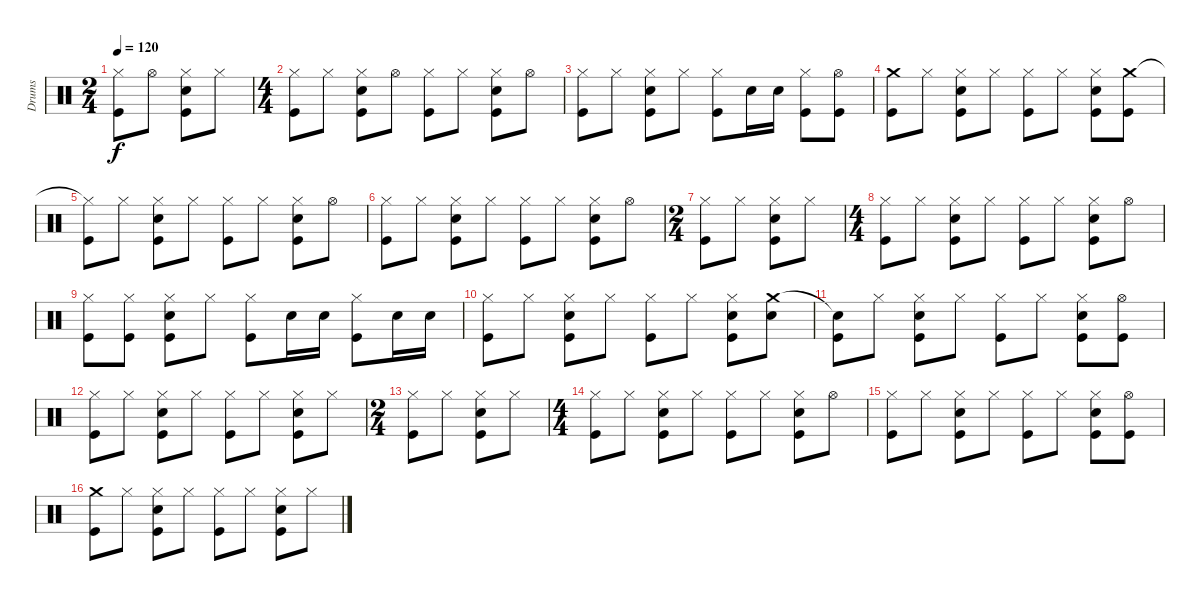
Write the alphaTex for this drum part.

\track ("Drums" "Drums") {instrument percussion}
\staff {score}
\articulation defaults
\ts (2 4)
\tempo 120
\clef neutral
\ks c
("Hi-Hat (closed)" "Kick (hit)").8{dy f} "Hi-Hat (open)".8 ("Hi-Hat (closed)" "Snare (hit) 2" "Kick (hit)").8 "Hi-Hat (closed)".8 |
\ts (4 4)
("Hi-Hat (closed)" "Kick (hit)").8 "Hi-Hat (closed)".8 ("Hi-Hat (closed)" "Snare (hit) 2" "Kick (hit)").8 "Hi-Hat (open)".8 ("Hi-Hat (closed)" "Kick (hit)").8 "Hi-Hat (closed)".8 ("Hi-Hat (closed)" "Snare (hit) 2" "Kick (hit)").8 "Hi-Hat (open)".8 |
("Hi-Hat (closed)" "Kick (hit)").8 "Hi-Hat (closed)".8 ("Hi-Hat (closed)" "Snare (hit) 2" "Kick (hit)").8 "Hi-Hat (closed)".8 ("Hi-Hat (closed)" "Kick (hit)").8 "Snare (hit) 2".16 "Snare (hit) 2".16 ("Hi-Hat (closed)" "Kick (hit)").8 ("Hi-Hat (open)" "Kick (hit)").8 |
("Crash medium (hit)" "Kick (hit)").8 "Hi-Hat (closed)".8 ("Hi-Hat (closed)" "Snare (hit) 2" "Kick (hit)").8 "Hi-Hat (closed)".8 ("Hi-Hat (closed)" "Kick (hit)").8 "Hi-Hat (closed)".8 ("Hi-Hat (closed)" "Snare (hit) 2" "Kick (hit)").8 ("Crash medium (hit)" "Kick (hit)").8 |
("Hi-Hat (closed)"{t} "Kick (hit)").8 "Hi-Hat (closed)".8 ("Hi-Hat (closed)" "Snare (hit) 2" "Kick (hit)").8 "Hi-Hat (closed)".8 ("Hi-Hat (closed)" "Kick (hit)").8 "Hi-Hat (closed)".8 ("Hi-Hat (closed)" "Snare (hit) 2" "Kick (hit)").8 "Hi-Hat (open)".8 |
("Hi-Hat (closed)" "Kick (hit)").8 "Hi-Hat (closed)".8 ("Hi-Hat (closed)" "Snare (hit) 2" "Kick (hit)").8 "Hi-Hat (closed)".8 ("Hi-Hat (closed)" "Kick (hit)").8 "Hi-Hat (closed)".8 ("Hi-Hat (closed)" "Snare (hit) 2" "Kick (hit)").8 "Hi-Hat (open)".8 |
\ts (2 4)
("Hi-Hat (closed)" "Kick (hit)").8 "Hi-Hat (closed)".8 ("Hi-Hat (closed)" "Snare (hit) 2" "Kick (hit)").8 "Hi-Hat (closed)".8 |
\ts (4 4)
("Hi-Hat (closed)" "Kick (hit)").8 "Hi-Hat (closed)".8 ("Hi-Hat (closed)" "Snare (hit) 2" "Kick (hit)").8 "Hi-Hat (closed)".8 ("Hi-Hat (closed)" "Kick (hit)").8 "Hi-Hat (closed)".8 ("Hi-Hat (closed)" "Snare (hit) 2" "Kick (hit)").8 "Hi-Hat (open)".8 |
("Hi-Hat (closed)" "Kick (hit)").8 ("Hi-Hat (closed)" "Kick (hit)").8 ("Hi-Hat (closed)" "Snare (hit) 2" "Kick (hit)").8 "Hi-Hat (closed)".8 ("Hi-Hat (closed)" "Kick (hit)").8 "Snare (hit) 2".16 "Snare (hit) 2".16 ("Hi-Hat (closed)" "Kick (hit)").8 "Snare (hit) 2".16 "Snare (hit) 2".16 |
("Hi-Hat (closed)" "Kick (hit)").8 "Hi-Hat (closed)".8 ("Hi-Hat (closed)" "Snare (hit) 2" "Kick (hit)").8 "Hi-Hat (closed)".8 ("Hi-Hat (closed)" "Kick (hit)").8 "Hi-Hat (closed)".8 ("Hi-Hat (closed)" "Snare (hit) 2" "Kick (hit)").8 ("Crash medium (hit)" "Snare (hit) 2").8 |
("Snare (hit)"{t} "Kick (hit)").8 "Hi-Hat (closed)".8 ("Hi-Hat (closed)" "Snare (hit) 2" "Kick (hit)").8 "Hi-Hat (closed)".8 ("Hi-Hat (closed)" "Kick (hit)").8 "Hi-Hat (closed)".8 ("Hi-Hat (closed)" "Snare (hit) 2" "Kick (hit)").8 ("Hi-Hat (open)" "Kick (hit)").8 |
("Hi-Hat (closed)" "Kick (hit)").8 "Hi-Hat (closed)".8 ("Hi-Hat (closed)" "Snare (hit) 2" "Kick (hit)").8 "Hi-Hat (closed)".8 ("Hi-Hat (closed)" "Kick (hit)").8 "Hi-Hat (closed)".8 ("Hi-Hat (closed)" "Snare (hit) 2" "Kick (hit)").8 "Hi-Hat (closed)".8 |
\ts (2 4)
("Hi-Hat (closed)" "Kick (hit)").8 "Hi-Hat (closed)".8 ("Hi-Hat (closed)" "Snare (hit) 2" "Kick (hit)").8 "Hi-Hat (closed)".8 |
\ts (4 4)
("Hi-Hat (closed)" "Kick (hit)").8 "Hi-Hat (closed)".8 ("Hi-Hat (closed)" "Snare (hit) 2" "Kick (hit)").8 "Hi-Hat (closed)".8 ("Hi-Hat (closed)" "Kick (hit)").8 "Hi-Hat (closed)".8 ("Hi-Hat (closed)" "Snare (hit) 2" "Kick (hit)").8 "Hi-Hat (open)".8 |
("Hi-Hat (closed)" "Kick (hit)").8 "Hi-Hat (closed)".8 ("Hi-Hat (closed)" "Snare (hit) 2" "Kick (hit)").8 "Hi-Hat (closed)".8 ("Hi-Hat (closed)" "Kick (hit)").8 "Hi-Hat (closed)".8 ("Hi-Hat (closed)" "Snare (hit) 2" "Kick (hit)").8 ("Hi-Hat (open)" "Kick (hit)").8 |
("Crash medium (hit)" "Kick (hit)").8 "Hi-Hat (closed)".8 ("Hi-Hat (closed)" "Snare (hit) 2" "Kick (hit)").8 "Hi-Hat (closed)".8 ("Hi-Hat (closed)" "Kick (hit)").8 "Hi-Hat (closed)".8 ("Hi-Hat (closed)" "Snare (hit) 2" "Kick (hit)").8 "Hi-Hat (closed)".8
